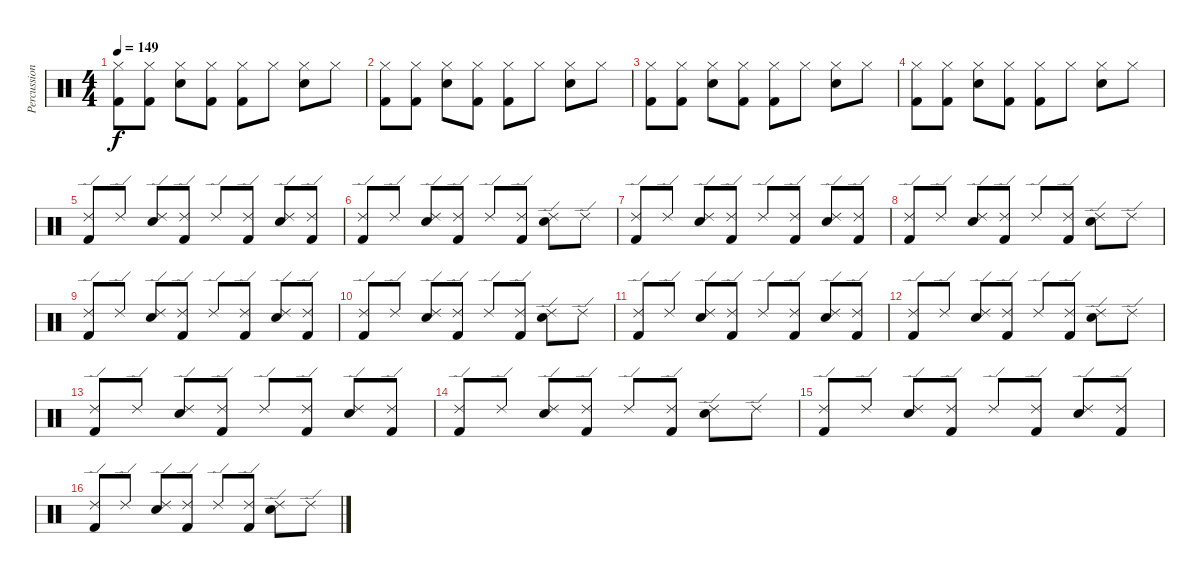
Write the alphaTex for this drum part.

\track ("Percussion" "Percussion") {instrument percussion}
\staff {score}
\articulation defaults
\ts (4 4)
\tempo 149
\clef neutral
\ks c
("Hi-Hat (closed)" "Kick (hit) 2").8{dy f} ("Hi-Hat (closed)" "Kick (hit) 2").8 ("Hi-Hat (closed)" "Electric Snare (hit)").8 ("Hi-Hat (closed)" "Kick (hit) 2").8 ("Hi-Hat (closed)" "Kick (hit) 2").8 "Hi-Hat (closed)".8 ("Hi-Hat (closed)" "Electric Snare (hit)").8 "Hi-Hat (closed)".8 |
("Hi-Hat (closed)" "Kick (hit) 2").8 ("Hi-Hat (closed)" "Kick (hit) 2").8 ("Hi-Hat (closed)" "Electric Snare (hit)").8 ("Hi-Hat (closed)" "Kick (hit) 2").8 ("Hi-Hat (closed)" "Kick (hit) 2").8 "Hi-Hat (closed)".8 ("Hi-Hat (closed)" "Electric Snare (hit)").8 "Hi-Hat (closed)".8 |
("Hi-Hat (closed)" "Kick (hit) 2").8 ("Hi-Hat (closed)" "Kick (hit) 2").8 ("Hi-Hat (closed)" "Electric Snare (hit)").8 ("Hi-Hat (closed)" "Kick (hit) 2").8 ("Hi-Hat (closed)" "Kick (hit) 2").8 "Hi-Hat (closed)".8 ("Hi-Hat (closed)" "Electric Snare (hit)").8 "Hi-Hat (closed)".8 |
("Hi-Hat (closed)" "Kick (hit) 2").8 ("Hi-Hat (closed)" "Kick (hit) 2").8 ("Hi-Hat (closed)" "Electric Snare (hit)").8 ("Hi-Hat (closed)" "Kick (hit) 2").8 ("Hi-Hat (closed)" "Kick (hit) 2").8 "Hi-Hat (closed)".8 ("Hi-Hat (closed)" "Electric Snare (hit)").8 "Hi-Hat (closed)".8 |
("Ride (edge) 2" "Kick (hit) 2").8 "Ride (edge) 2".8 ("Ride (edge) 2" "Electric Snare (hit)").8 ("Ride (edge) 2" "Kick (hit) 2").8 "Ride (edge) 2".8 ("Ride (edge) 2" "Kick (hit) 2").8 ("Ride (edge) 2" "Electric Snare (hit)").8 ("Ride (edge) 2" "Kick (hit) 2").8 |
("Ride (edge) 2" "Kick (hit) 2").8 "Ride (edge) 2".8 ("Ride (edge) 2" "Electric Snare (hit)").8 ("Ride (edge) 2" "Kick (hit) 2").8 "Ride (edge) 2".8 ("Ride (edge) 2" "Kick (hit) 2").8 ("Ride (edge) 2" "Electric Snare (hit)").8 "Ride (edge) 2".8 |
("Ride (edge) 2" "Kick (hit) 2").8 "Ride (edge) 2".8 ("Ride (edge) 2" "Electric Snare (hit)").8 ("Ride (edge) 2" "Kick (hit) 2").8 "Ride (edge) 2".8 ("Ride (edge) 2" "Kick (hit) 2").8 ("Ride (edge) 2" "Electric Snare (hit)").8 ("Ride (edge) 2" "Kick (hit) 2").8 |
("Ride (edge) 2" "Kick (hit) 2").8 "Ride (edge) 2".8 ("Ride (edge) 2" "Electric Snare (hit)").8 ("Ride (edge) 2" "Kick (hit) 2").8 "Ride (edge) 2".8 ("Ride (edge) 2" "Kick (hit) 2").8 ("Ride (edge) 2" "Electric Snare (hit)").8 "Ride (edge) 2".8 |
("Ride (edge) 2" "Kick (hit) 2").8 "Ride (edge) 2".8 ("Ride (edge) 2" "Electric Snare (hit)").8 ("Ride (edge) 2" "Kick (hit) 2").8 "Ride (edge) 2".8 ("Ride (edge) 2" "Kick (hit) 2").8 ("Ride (edge) 2" "Electric Snare (hit)").8 ("Ride (edge) 2" "Kick (hit) 2").8 |
("Ride (edge) 2" "Kick (hit) 2").8 "Ride (edge) 2".8 ("Ride (edge) 2" "Electric Snare (hit)").8 ("Ride (edge) 2" "Kick (hit) 2").8 "Ride (edge) 2".8 ("Ride (edge) 2" "Kick (hit) 2").8 ("Ride (edge) 2" "Electric Snare (hit)").8 "Ride (edge) 2".8 |
("Ride (edge) 2" "Kick (hit) 2").8 "Ride (edge) 2".8 ("Ride (edge) 2" "Electric Snare (hit)").8 ("Ride (edge) 2" "Kick (hit) 2").8 "Ride (edge) 2".8 ("Ride (edge) 2" "Kick (hit) 2").8 ("Ride (edge) 2" "Electric Snare (hit)").8 ("Ride (edge) 2" "Kick (hit) 2").8 |
("Ride (edge) 2" "Kick (hit) 2").8 "Ride (edge) 2".8 ("Ride (edge) 2" "Electric Snare (hit)").8 ("Ride (edge) 2" "Kick (hit) 2").8 "Ride (edge) 2".8 ("Ride (edge) 2" "Kick (hit) 2").8 ("Ride (edge) 2" "Electric Snare (hit)").8 "Ride (edge) 2".8 |
("Ride (edge) 2" "Kick (hit) 2").8 "Ride (edge) 2".8 ("Ride (edge) 2" "Electric Snare (hit)").8 ("Ride (edge) 2" "Kick (hit) 2").8 "Ride (edge) 2".8 ("Ride (edge) 2" "Kick (hit) 2").8 ("Ride (edge) 2" "Electric Snare (hit)").8 ("Ride (edge) 2" "Kick (hit) 2").8 |
("Ride (edge) 2" "Kick (hit) 2").8 "Ride (edge) 2".8 ("Ride (edge) 2" "Electric Snare (hit)").8 ("Ride (edge) 2" "Kick (hit) 2").8 "Ride (edge) 2".8 ("Ride (edge) 2" "Kick (hit) 2").8 ("Ride (edge) 2" "Electric Snare (hit)").8 "Ride (edge) 2".8 |
("Ride (edge) 2" "Kick (hit) 2").8 "Ride (edge) 2".8 ("Ride (edge) 2" "Electric Snare (hit)").8 ("Ride (edge) 2" "Kick (hit) 2").8 "Ride (edge) 2".8 ("Ride (edge) 2" "Kick (hit) 2").8 ("Ride (edge) 2" "Electric Snare (hit)").8 ("Ride (edge) 2" "Kick (hit) 2").8 |
("Ride (edge) 2" "Kick (hit) 2").8 "Ride (edge) 2".8 ("Ride (edge) 2" "Electric Snare (hit)").8 ("Ride (edge) 2" "Kick (hit) 2").8 "Ride (edge) 2".8 ("Ride (edge) 2" "Kick (hit) 2").8 ("Ride (edge) 2" "Electric Snare (hit)").8 "Ride (edge) 2".8
